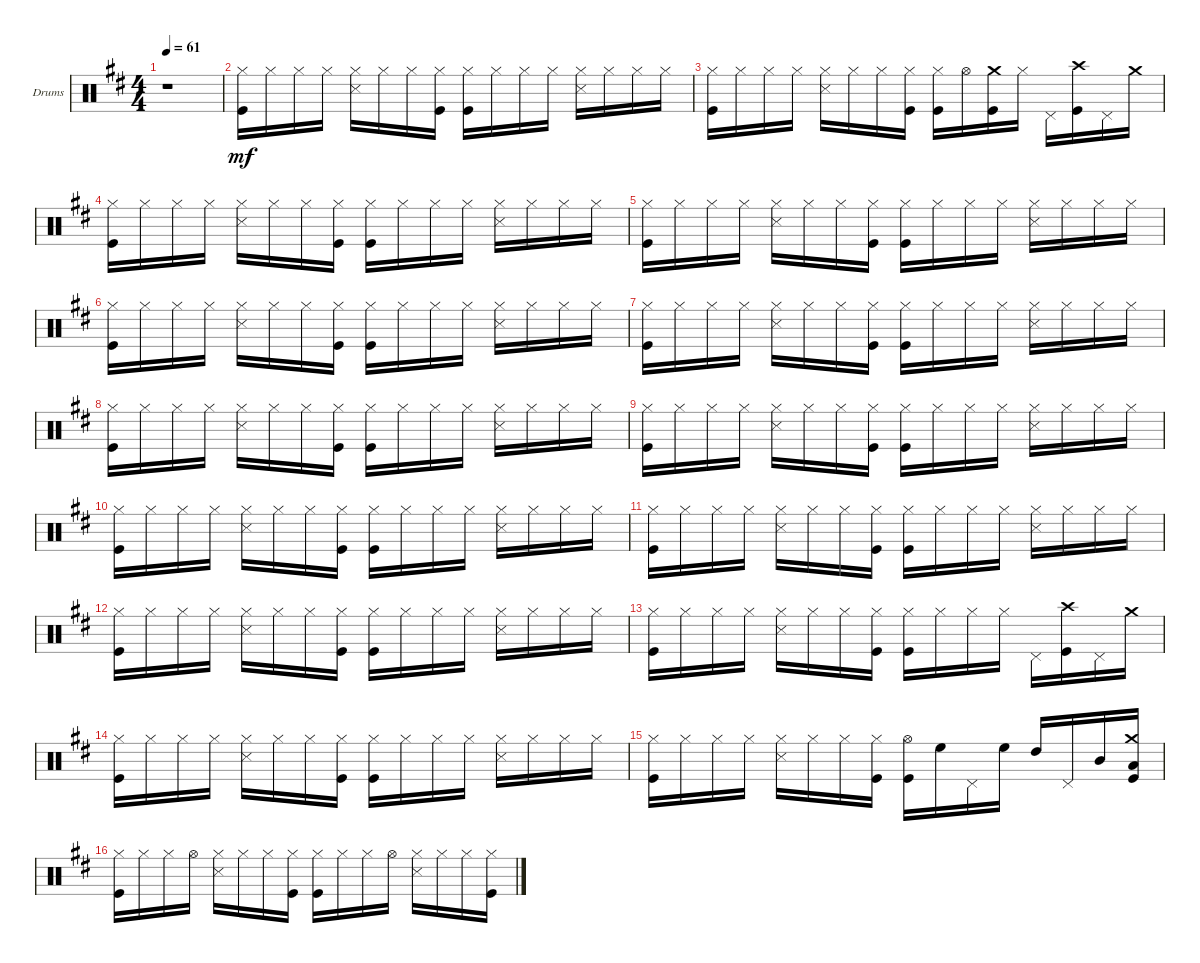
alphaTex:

\defaultSystemsLayout 4
\bracketExtendMode groupsimilarinstruments
\firstSystemTrackNameOrientation horizontal
\otherSystemsTrackNameOrientation horizontal
\track ("Drumkit" "Drums") {multiBarRest instrument percussion}
\staff {score}
\articulation defaults
\ts (4 4)
\tempo 61
\clef neutral
\scale
0.514894
\ks d
r.1{dy mf} |
\scale
0.242553 ("Kick (hit)" "Hi-Hat (closed)").16 "Hi-Hat (closed)".16 "Hi-Hat (closed)".16 "Hi-Hat (closed)".16 ("Snare (side stick) 3" "Hi-Hat (closed)").16 "Hi-Hat (closed)".16 "Hi-Hat (closed)".16 ("Kick (hit)" "Hi-Hat (closed)").16 ("Kick (hit)" "Hi-Hat (closed)").16 "Hi-Hat (closed)".16 "Hi-Hat (closed)".16 "Hi-Hat (closed)".16 ("Snare (side stick) 3" "Hi-Hat (closed)").16 "Hi-Hat (closed)".16 "Hi-Hat (closed)".16 "Hi-Hat (closed)".16 |
\scale
0.242553 ("Kick (hit)" "Hi-Hat (closed)").16 "Hi-Hat (closed)".16 "Hi-Hat (closed)".16 "Hi-Hat (closed)".16 ("Snare (side stick) 3" "Hi-Hat (closed)").16 "Hi-Hat (closed)".16 "Hi-Hat (closed)".16 ("Kick (hit)" "Hi-Hat (closed)").16 ("Kick (hit)" "Hi-Hat (closed)").16 "Hi-Hat (open)".16 ("Kick (hit)" "Crash medium (hit)").16 "Hi-Hat (closed)".16 "Pedal Hi-Hat (hit)".16 ("Kick (hit)" "Crash high (hit)").16 "Pedal Hi-Hat (hit)".16 "Crash medium (hit)".16 |
\scale
0.333333 ("Kick (hit)" "Hi-Hat (closed)").16 "Hi-Hat (closed)".16 "Hi-Hat (closed)".16 "Hi-Hat (closed)".16 ("Snare (side stick) 3" "Hi-Hat (closed)").16 "Hi-Hat (closed)".16 "Hi-Hat (closed)".16 ("Kick (hit)" "Hi-Hat (closed)").16 ("Kick (hit)" "Hi-Hat (closed)").16 "Hi-Hat (closed)".16 "Hi-Hat (closed)".16 "Hi-Hat (closed)".16 ("Snare (side stick) 3" "Hi-Hat (closed)").16 "Hi-Hat (closed)".16 "Hi-Hat (closed)".16 "Hi-Hat (closed)".16 |
\scale
0.333333 ("Kick (hit)" "Hi-Hat (closed)").16 "Hi-Hat (closed)".16 "Hi-Hat (closed)".16 "Hi-Hat (closed)".16 ("Snare (side stick) 3" "Hi-Hat (closed)").16 "Hi-Hat (closed)".16 "Hi-Hat (closed)".16 ("Kick (hit)" "Hi-Hat (closed)").16 ("Kick (hit)" "Hi-Hat (closed)").16 "Hi-Hat (closed)".16 "Hi-Hat (closed)".16 "Hi-Hat (closed)".16 ("Snare (side stick) 3" "Hi-Hat (closed)").16 "Hi-Hat (closed)".16 "Hi-Hat (closed)".16 "Hi-Hat (closed)".16 |
\scale
0.333333 ("Kick (hit)" "Hi-Hat (closed)").16 "Hi-Hat (closed)".16 "Hi-Hat (closed)".16 "Hi-Hat (closed)".16 ("Snare (side stick) 3" "Hi-Hat (closed)").16 "Hi-Hat (closed)".16 "Hi-Hat (closed)".16 ("Kick (hit)" "Hi-Hat (closed)").16 ("Kick (hit)" "Hi-Hat (closed)").16 "Hi-Hat (closed)".16 "Hi-Hat (closed)".16 "Hi-Hat (closed)".16 ("Snare (side stick) 3" "Hi-Hat (closed)").16 "Hi-Hat (closed)".16 "Hi-Hat (closed)".16 "Hi-Hat (closed)".16 |
\scale
0.333333 ("Kick (hit)" "Hi-Hat (closed)").16 "Hi-Hat (closed)".16 "Hi-Hat (closed)".16 "Hi-Hat (closed)".16 ("Snare (side stick) 3" "Hi-Hat (closed)").16 "Hi-Hat (closed)".16 "Hi-Hat (closed)".16 ("Kick (hit)" "Hi-Hat (closed)").16 ("Kick (hit)" "Hi-Hat (closed)").16 "Hi-Hat (closed)".16 "Hi-Hat (closed)".16 "Hi-Hat (closed)".16 ("Snare (side stick) 3" "Hi-Hat (closed)").16 "Hi-Hat (closed)".16 "Hi-Hat (closed)".16 "Hi-Hat (closed)".16 |
\scale
0.333333 ("Kick (hit)" "Hi-Hat (closed)").16 "Hi-Hat (closed)".16 "Hi-Hat (closed)".16 "Hi-Hat (closed)".16 ("Snare (side stick) 3" "Hi-Hat (closed)").16 "Hi-Hat (closed)".16 "Hi-Hat (closed)".16 ("Kick (hit)" "Hi-Hat (closed)").16 ("Kick (hit)" "Hi-Hat (closed)").16 "Hi-Hat (closed)".16 "Hi-Hat (closed)".16 "Hi-Hat (closed)".16 ("Snare (side stick) 3" "Hi-Hat (closed)").16 "Hi-Hat (closed)".16 "Hi-Hat (closed)".16 "Hi-Hat (closed)".16 |
\scale
0.333333 ("Kick (hit)" "Hi-Hat (closed)").16 "Hi-Hat (closed)".16 "Hi-Hat (closed)".16 "Hi-Hat (closed)".16 ("Snare (side stick) 3" "Hi-Hat (closed)").16 "Hi-Hat (closed)".16 "Hi-Hat (closed)".16 ("Kick (hit)" "Hi-Hat (closed)").16 ("Kick (hit)" "Hi-Hat (closed)").16 "Hi-Hat (closed)".16 "Hi-Hat (closed)".16 "Hi-Hat (closed)".16 ("Snare (side stick) 3" "Hi-Hat (closed)").16 "Hi-Hat (closed)".16 "Hi-Hat (closed)".16 "Hi-Hat (closed)".16 |
\scale
0.333333 ("Kick (hit)" "Hi-Hat (closed)").16 "Hi-Hat (closed)".16 "Hi-Hat (closed)".16 "Hi-Hat (closed)".16 ("Snare (side stick) 3" "Hi-Hat (closed)").16 "Hi-Hat (closed)".16 "Hi-Hat (closed)".16 ("Kick (hit)" "Hi-Hat (closed)").16 ("Kick (hit)" "Hi-Hat (closed)").16 "Hi-Hat (closed)".16 "Hi-Hat (closed)".16 "Hi-Hat (closed)".16 ("Snare (side stick) 3" "Hi-Hat (closed)").16 "Hi-Hat (closed)".16 "Hi-Hat (closed)".16 "Hi-Hat (closed)".16 |
\scale
0.333333 ("Kick (hit)" "Hi-Hat (closed)").16 "Hi-Hat (closed)".16 "Hi-Hat (closed)".16 "Hi-Hat (closed)".16 ("Snare (side stick) 3" "Hi-Hat (closed)").16 "Hi-Hat (closed)".16 "Hi-Hat (closed)".16 ("Kick (hit)" "Hi-Hat (closed)").16 ("Kick (hit)" "Hi-Hat (closed)").16 "Hi-Hat (closed)".16 "Hi-Hat (closed)".16 "Hi-Hat (closed)".16 ("Snare (side stick) 3" "Hi-Hat (closed)").16 "Hi-Hat (closed)".16 "Hi-Hat (closed)".16 "Hi-Hat (closed)".16 |
\scale
0.333333 ("Kick (hit)" "Hi-Hat (closed)").16 "Hi-Hat (closed)".16 "Hi-Hat (closed)".16 "Hi-Hat (closed)".16 ("Snare (side stick) 3" "Hi-Hat (closed)").16 "Hi-Hat (closed)".16 "Hi-Hat (closed)".16 ("Kick (hit)" "Hi-Hat (closed)").16 ("Kick (hit)" "Hi-Hat (closed)").16 "Hi-Hat (closed)".16 "Hi-Hat (closed)".16 "Hi-Hat (closed)".16 ("Snare (side stick) 3" "Hi-Hat (closed)").16 "Hi-Hat (closed)".16 "Hi-Hat (closed)".16 "Hi-Hat (closed)".16 |
\scale
0.333333 ("Kick (hit)" "Hi-Hat (closed)").16 "Hi-Hat (closed)".16 "Hi-Hat (closed)".16 "Hi-Hat (closed)".16 ("Snare (side stick) 3" "Hi-Hat (closed)").16 "Hi-Hat (closed)".16 "Hi-Hat (closed)".16 ("Kick (hit)" "Hi-Hat (closed)").16 ("Kick (hit)" "Hi-Hat (closed)").16 "Hi-Hat (closed)".16 "Hi-Hat (closed)".16 "Hi-Hat (closed)".16 "Pedal Hi-Hat (hit)".16 ("Kick (hit)" "Crash high (hit)").16 "Pedal Hi-Hat (hit)".16 "Crash medium (hit)".16 |
\scale
0.333333 ("Kick (hit)" "Hi-Hat (closed)").16 "Hi-Hat (closed)".16 "Hi-Hat (closed)".16 "Hi-Hat (closed)".16 ("Snare (side stick) 3" "Hi-Hat (closed)").16 "Hi-Hat (closed)".16 "Hi-Hat (closed)".16 ("Kick (hit)" "Hi-Hat (closed)").16 ("Kick (hit)" "Hi-Hat (closed)").16 "Hi-Hat (closed)".16 "Hi-Hat (closed)".16 "Hi-Hat (closed)".16 ("Snare (side stick) 3" "Hi-Hat (closed)").16 "Hi-Hat (closed)".16 "Hi-Hat (closed)".16 "Hi-Hat (closed)".16 |
\scale
0.333333 ("Kick (hit)" "Hi-Hat (closed)").16 "Hi-Hat (closed)".16 "Hi-Hat (closed)".16 "Hi-Hat (closed)".16 ("Snare (side stick) 3" "Hi-Hat (closed)").16 "Hi-Hat (closed)".16 "Hi-Hat (closed)".16 ("Kick (hit)" "Hi-Hat (closed)").16 ("Kick (hit)" "Hi-Hat (open)").16 "High Floor Tom (hit)".16 "Pedal Hi-Hat (hit)".16 "High Floor Tom (hit)".16 "High Tom (hit)".16 "Pedal Hi-Hat (hit)".16 "Mid Tom (hit)".16 ("Kick (hit)" "Low Tom (hit)" "Crash medium (hit)").16 |
\scale
0.333333 ("Hi-Hat (closed)" "Kick (hit)").16 "Hi-Hat (closed)".16 "Hi-Hat (closed)".16 "Hi-Hat (open)".16 ("Hi-Hat (closed)" "Snare (side stick) 3").16 "Hi-Hat (closed)".16 "Hi-Hat (closed)".16 ("Hi-Hat (closed)" "Kick (hit)").16 ("Hi-Hat (closed)" "Kick (hit)").16 "Hi-Hat (closed)".16 "Hi-Hat (closed)".16 "Hi-Hat (open)".16 ("Hi-Hat (closed)" "Snare (side stick) 3").16 "Hi-Hat (closed)".16 "Hi-Hat (closed)".16 ("Hi-Hat (closed)" "Kick (hit)").16
